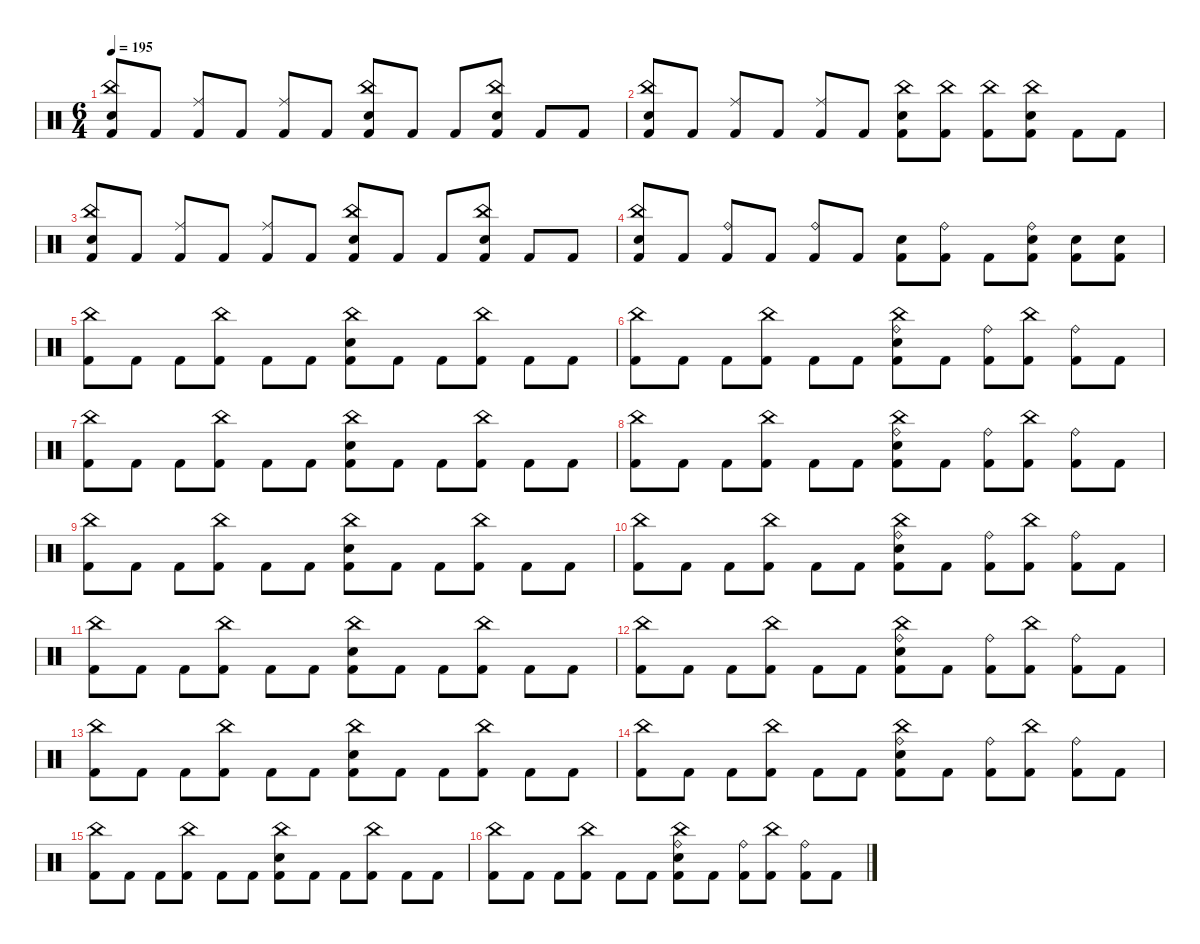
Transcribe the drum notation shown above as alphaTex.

\defaultSystemsLayout 4
\hideDynamics
\bracketExtendMode nobrackets
\singleTrackTrackNamePolicy hidden
\multiTrackTrackNamePolicy hidden
\firstSystemTrackNameMode fullname
\firstSystemTrackNameOrientation horizontal
\otherSystemsTrackNameOrientation horizontal
\track ("Drums" "drm.") {instrument percussion}
\staff {score}
\articulation defaults
\ts (6 4)
\tempo 195
\clef neutral
\ks c
("China (hit)" "Snare (hit) 2" "Kick (hit) 2").8{dy f beam Up} "Kick (hit) 2".8{beam Up} ("Ride (middle)" "Kick (hit) 2").8{beam Up} "Kick (hit) 2".8{beam Up} ("Ride (middle)" "Kick (hit) 2").8{beam Up} "Kick (hit) 2".8{beam Up} ("China (hit)" "Snare (hit) 2" "Kick (hit) 2").8{beam Up} "Kick (hit) 2".8{beam Up} "Kick (hit) 2".8{beam Up} ("China (hit)" "Snare (hit) 2" "Kick (hit) 2").8{beam Up} "Kick (hit) 2".8{beam Up} "Kick (hit) 2".8{beam Up} |
("China (hit)" "Snare (hit) 2" "Kick (hit) 2").8{beam Up} "Kick (hit) 2".8{beam Up} ("Ride (middle)" "Kick (hit) 2").8{beam Up} "Kick (hit) 2".8{beam Up} ("Ride (middle)" "Kick (hit) 2").8{beam Up} "Kick (hit) 2".8{beam Up} ("China (hit)" "Snare (hit) 2" "Kick (hit) 2").8{beam Down} ("China (hit)" "Kick (hit) 2").8{beam Down} ("China (hit)" "Kick (hit) 2").8{beam Down} ("China (hit)" "Snare (hit) 2" "Kick (hit) 2").8{beam Down} "Kick (hit) 2".8{beam Down} "Kick (hit) 2".8{beam Down} |
("China (hit)" "Snare (hit) 2" "Kick (hit) 2").8{beam Up} "Kick (hit) 2".8{beam Up} ("Ride (middle)" "Kick (hit) 2").8{beam Up} "Kick (hit) 2".8{beam Up} ("Ride (middle)" "Kick (hit) 2").8{beam Up} "Kick (hit) 2".8{beam Up} ("China (hit)" "Snare (hit) 2" "Kick (hit) 2").8{beam Up} "Kick (hit) 2".8{beam Up} "Kick (hit) 2".8{beam Up} ("China (hit)" "Snare (hit) 2" "Kick (hit) 2").8{beam Up} "Kick (hit) 2".8{beam Up} "Kick (hit) 2".8{beam Up} |
("China (hit)" "Snare (hit) 2" "Kick (hit) 2").8{beam Up} "Kick (hit) 2".8{beam Up} ("Ride (bell)" "Kick (hit) 2").8{beam Up} "Kick (hit) 2".8{beam Up} ("Ride (bell)" "Kick (hit) 2").8{beam Up} "Kick (hit) 2".8{beam Up} ("Snare (hit) 2" "Kick (hit) 2").8{beam Down} ("Ride (bell)" "Kick (hit) 2").8{beam Down} "Kick (hit) 2".8{beam Down} ("Ride (bell)" "Snare (hit) 2" "Kick (hit) 2").8{beam Down} ("Snare (hit) 2" "Kick (hit) 2").8{beam Down} ("Snare (hit) 2" "Kick (hit) 2").8{beam Down} |
("China (hit)" "Kick (hit) 2").8{beam Down} "Kick (hit) 2".8{beam Down} "Kick (hit) 2".8{beam Down} ("China (hit)" "Kick (hit) 2").8{beam Down} "Kick (hit) 2".8{beam Down} "Kick (hit) 2".8{beam Down} ("China (hit)" "Snare (hit) 2" "Kick (hit) 2").8{beam Down} "Kick (hit) 2".8{beam Down} "Kick (hit) 2".8{beam Down} ("China (hit)" "Kick (hit) 2").8{beam Down} "Kick (hit) 2".8{beam Down} "Kick (hit) 2".8{beam Down} |
("China (hit)" "Kick (hit) 2").8{beam Down} "Kick (hit) 2".8{beam Down} "Kick (hit) 2".8{beam Down} ("China (hit)" "Kick (hit) 2").8{beam Down} "Kick (hit) 2".8{beam Down} "Kick (hit) 2".8{beam Down} ("China (hit)" "Ride (bell)" "Snare (hit) 2" "Kick (hit) 2").8{beam Down} "Kick (hit) 2".8{beam Down} ("Ride (bell)" "Kick (hit) 2").8{beam Down} ("China (hit)" "Kick (hit) 2").8{beam Down} ("Ride (bell)" "Kick (hit) 2").8{beam Down} "Kick (hit) 2".8{beam Down} |
("China (hit)" "Kick (hit) 2").8{beam Down} "Kick (hit) 2".8{beam Down} "Kick (hit) 2".8{beam Down} ("China (hit)" "Kick (hit) 2").8{beam Down} "Kick (hit) 2".8{beam Down} "Kick (hit) 2".8{beam Down} ("China (hit)" "Snare (hit) 2" "Kick (hit) 2").8{beam Down} "Kick (hit) 2".8{beam Down} "Kick (hit) 2".8{beam Down} ("China (hit)" "Kick (hit) 2").8{beam Down} "Kick (hit) 2".8{beam Down} "Kick (hit) 2".8{beam Down} |
("China (hit)" "Kick (hit) 2").8{beam Down} "Kick (hit) 2".8{beam Down} "Kick (hit) 2".8{beam Down} ("China (hit)" "Kick (hit) 2").8{beam Down} "Kick (hit) 2".8{beam Down} "Kick (hit) 2".8{beam Down} ("China (hit)" "Ride (bell)" "Snare (hit) 2" "Kick (hit) 2").8{beam Down} "Kick (hit) 2".8{beam Down} ("Ride (bell)" "Kick (hit) 2").8{beam Down} ("China (hit)" "Kick (hit) 2").8{beam Down} ("Ride (bell)" "Kick (hit) 2").8{beam Down} "Kick (hit) 2".8{beam Down} |
("China (hit)" "Kick (hit) 2").8{beam Down} "Kick (hit) 2".8{beam Down} "Kick (hit) 2".8{beam Down} ("China (hit)" "Kick (hit) 2").8{beam Down} "Kick (hit) 2".8{beam Down} "Kick (hit) 2".8{beam Down} ("China (hit)" "Snare (hit) 2" "Kick (hit) 2").8{beam Down} "Kick (hit) 2".8{beam Down} "Kick (hit) 2".8{beam Down} ("China (hit)" "Kick (hit) 2").8{beam Down} "Kick (hit) 2".8{beam Down} "Kick (hit) 2".8{beam Down} |
("China (hit)" "Kick (hit) 2").8{beam Down} "Kick (hit) 2".8{beam Down} "Kick (hit) 2".8{beam Down} ("China (hit)" "Kick (hit) 2").8{beam Down} "Kick (hit) 2".8{beam Down} "Kick (hit) 2".8{beam Down} ("China (hit)" "Ride (bell)" "Snare (hit) 2" "Kick (hit) 2").8{beam Down} "Kick (hit) 2".8{beam Down} ("Ride (bell)" "Kick (hit) 2").8{beam Down} ("China (hit)" "Kick (hit) 2").8{beam Down} ("Ride (bell)" "Kick (hit) 2").8{beam Down} "Kick (hit) 2".8{beam Down} |
("China (hit)" "Kick (hit) 2").8{beam Down} "Kick (hit) 2".8{beam Down} "Kick (hit) 2".8{beam Down} ("China (hit)" "Kick (hit) 2").8{beam Down} "Kick (hit) 2".8{beam Down} "Kick (hit) 2".8{beam Down} ("China (hit)" "Snare (hit) 2" "Kick (hit) 2").8{beam Down} "Kick (hit) 2".8{beam Down} "Kick (hit) 2".8{beam Down} ("China (hit)" "Kick (hit) 2").8{beam Down} "Kick (hit) 2".8{beam Down} "Kick (hit) 2".8{beam Down} |
("China (hit)" "Kick (hit) 2").8{beam Down} "Kick (hit) 2".8{beam Down} "Kick (hit) 2".8{beam Down} ("China (hit)" "Kick (hit) 2").8{beam Down} "Kick (hit) 2".8{beam Down} "Kick (hit) 2".8{beam Down} ("China (hit)" "Ride (bell)" "Snare (hit) 2" "Kick (hit) 2").8{beam Down} "Kick (hit) 2".8{beam Down} ("Ride (bell)" "Kick (hit) 2").8{beam Down} ("China (hit)" "Kick (hit) 2").8{beam Down} ("Ride (bell)" "Kick (hit) 2").8{beam Down} "Kick (hit) 2".8{beam Down} |
("China (hit)" "Kick (hit) 2").8{beam Down} "Kick (hit) 2".8{beam Down} "Kick (hit) 2".8{beam Down} ("China (hit)" "Kick (hit) 2").8{beam Down} "Kick (hit) 2".8{beam Down} "Kick (hit) 2".8{beam Down} ("China (hit)" "Snare (hit) 2" "Kick (hit) 2").8{beam Down} "Kick (hit) 2".8{beam Down} "Kick (hit) 2".8{beam Down} ("China (hit)" "Kick (hit) 2").8{beam Down} "Kick (hit) 2".8{beam Down} "Kick (hit) 2".8{beam Down} |
("China (hit)" "Kick (hit) 2").8{beam Down} "Kick (hit) 2".8{beam Down} "Kick (hit) 2".8{beam Down} ("China (hit)" "Kick (hit) 2").8{beam Down} "Kick (hit) 2".8{beam Down} "Kick (hit) 2".8{beam Down} ("China (hit)" "Ride (bell)" "Snare (hit) 2" "Kick (hit) 2").8{beam Down} "Kick (hit) 2".8{beam Down} ("Ride (bell)" "Kick (hit) 2").8{beam Down} ("China (hit)" "Kick (hit) 2").8{beam Down} ("Ride (bell)" "Kick (hit) 2").8{beam Down} "Kick (hit) 2".8{beam Down} |
("China (hit)" "Kick (hit) 2").8{beam Down} "Kick (hit) 2".8{beam Down} "Kick (hit) 2".8{beam Down} ("China (hit)" "Kick (hit) 2").8{beam Down} "Kick (hit) 2".8{beam Down} "Kick (hit) 2".8{beam Down} ("China (hit)" "Snare (hit) 2" "Kick (hit) 2").8{beam Down} "Kick (hit) 2".8{beam Down} "Kick (hit) 2".8{beam Down} ("China (hit)" "Kick (hit) 2").8{beam Down} "Kick (hit) 2".8{beam Down} "Kick (hit) 2".8{beam Down} |
("China (hit)" "Kick (hit) 2").8{beam Down} "Kick (hit) 2".8{beam Down} "Kick (hit) 2".8{beam Down} ("China (hit)" "Kick (hit) 2").8{beam Down} "Kick (hit) 2".8{beam Down} "Kick (hit) 2".8{beam Down} ("China (hit)" "Ride (bell)" "Snare (hit) 2" "Kick (hit) 2").8{beam Down} "Kick (hit) 2".8{beam Down} ("Ride (bell)" "Kick (hit) 2").8{beam Down} ("China (hit)" "Kick (hit) 2").8{beam Down} ("Ride (bell)" "Kick (hit) 2").8{beam Down} "Kick (hit) 2".8{beam Down}
